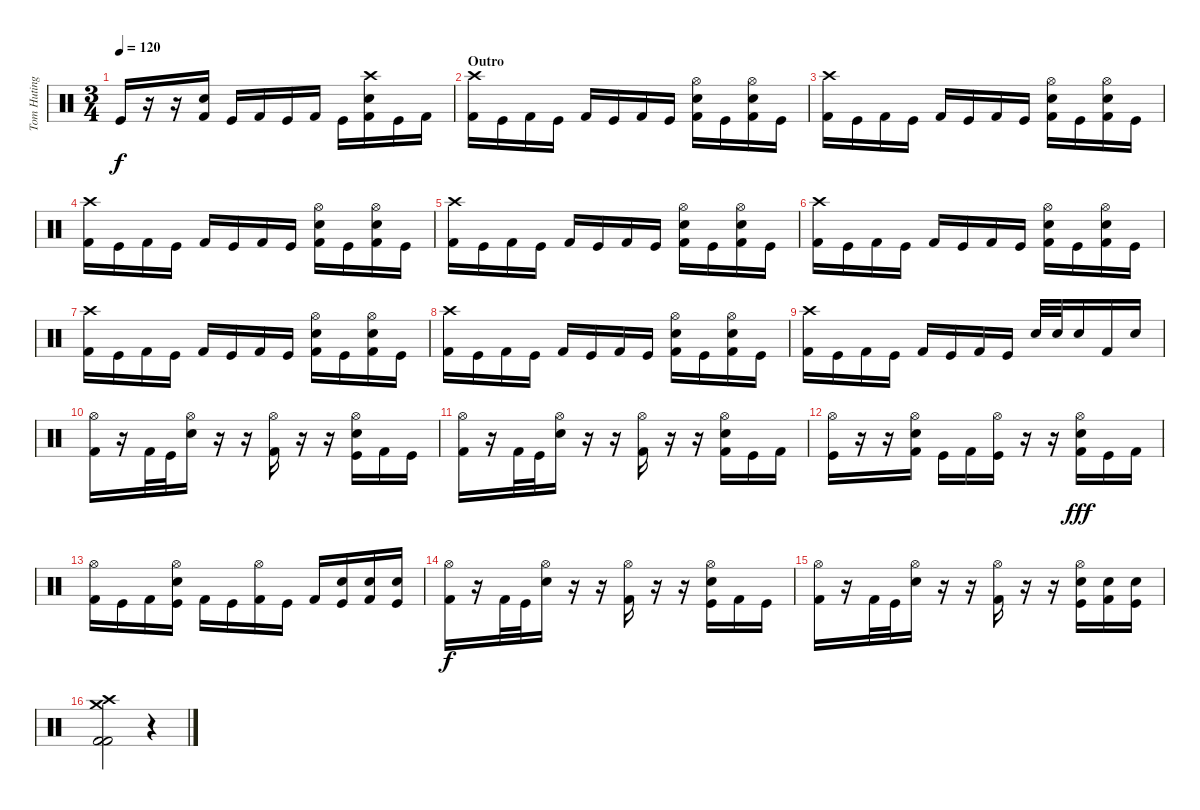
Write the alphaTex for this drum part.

\track ("Tom Huting" "Tom Huting") {instrument percussion}
\staff {score}
\articulation defaults
\ts (3 4)
\tempo 120
\clef neutral
\ks c "Kick (hit)".16{dy f}
r.16 r.16 ("Kick (hit) 2" "Snare (hit) 2").16 "Kick (hit)".16 "Kick (hit) 2".16 "Kick (hit)".16 "Kick (hit) 2".16 "Kick (hit)".16 ("Kick (hit) 2" "Snare (hit) 2" "Crash high (hit)").16 "Kick (hit)".16 "Kick (hit) 2".16 |
\section ("" "Outro")
("Kick (hit) 2" "Crash high (hit)").16 "Kick (hit)".16 "Kick (hit) 2".16 "Kick (hit)".16 "Kick (hit) 2".16 "Kick (hit)".16 "Kick (hit) 2".16 "Kick (hit)".16 ("Kick (hit) 2" "Snare (hit) 2" "Hi-Hat (open)").16 "Kick (hit)".16 ("Kick (hit) 2" "Snare (hit) 2" "Hi-Hat (open)").16 "Kick (hit)".16 |
("Kick (hit) 2" "Crash high (hit)").16 "Kick (hit)".16 "Kick (hit) 2".16 "Kick (hit)".16 "Kick (hit) 2".16 "Kick (hit)".16 "Kick (hit) 2".16 "Kick (hit)".16 ("Kick (hit) 2" "Snare (hit) 2" "Hi-Hat (open)").16 "Kick (hit)".16 ("Kick (hit) 2" "Snare (hit) 2" "Hi-Hat (open)").16 "Kick (hit)".16 |
("Kick (hit) 2" "Crash high (hit)").16 "Kick (hit)".16 "Kick (hit) 2".16 "Kick (hit)".16 "Kick (hit) 2".16 "Kick (hit)".16 "Kick (hit) 2".16 "Kick (hit)".16 ("Kick (hit) 2" "Snare (hit) 2" "Hi-Hat (open)").16 "Kick (hit)".16 ("Kick (hit) 2" "Snare (hit) 2" "Hi-Hat (open)").16 "Kick (hit)".16 |
("Kick (hit) 2" "Crash high (hit)").16 "Kick (hit)".16 "Kick (hit) 2".16 "Kick (hit)".16 "Kick (hit) 2".16 "Kick (hit)".16 "Kick (hit) 2".16 "Kick (hit)".16 ("Kick (hit) 2" "Snare (hit) 2" "Hi-Hat (open)").16 "Kick (hit)".16 ("Kick (hit) 2" "Snare (hit) 2" "Hi-Hat (open)").16 "Kick (hit)".16 |
("Kick (hit) 2" "Crash high (hit)").16 "Kick (hit)".16 "Kick (hit) 2".16 "Kick (hit)".16 "Kick (hit) 2".16 "Kick (hit)".16 "Kick (hit) 2".16 "Kick (hit)".16 ("Kick (hit) 2" "Snare (hit) 2" "Hi-Hat (open)").16 "Kick (hit)".16 ("Kick (hit) 2" "Snare (hit) 2" "Hi-Hat (open)").16 "Kick (hit)".16 |
("Kick (hit) 2" "Crash high (hit)").16 "Kick (hit)".16 "Kick (hit) 2".16 "Kick (hit)".16 "Kick (hit) 2".16 "Kick (hit)".16 "Kick (hit) 2".16 "Kick (hit)".16 ("Kick (hit) 2" "Snare (hit) 2" "Hi-Hat (open)").16 "Kick (hit)".16 ("Kick (hit) 2" "Snare (hit) 2" "Hi-Hat (open)").16 "Kick (hit)".16 |
("Kick (hit) 2" "Crash high (hit)").16 "Kick (hit)".16 "Kick (hit) 2".16 "Kick (hit)".16 "Kick (hit) 2".16 "Kick (hit)".16 "Kick (hit) 2".16 "Kick (hit)".16 ("Kick (hit) 2" "Snare (hit) 2" "Hi-Hat (open)").16 "Kick (hit)".16 ("Kick (hit) 2" "Snare (hit) 2" "Hi-Hat (open)").16 "Kick (hit)".16 |
("Kick (hit) 2" "Crash high (hit)").16 "Kick (hit)".16 "Kick (hit) 2".16 "Kick (hit)".16 "Kick (hit) 2".16 "Kick (hit)".16 "Kick (hit) 2".16 "Kick (hit)".16 "Snare (hit) 2".32 "Snare (hit) 2".32 "Snare (hit) 2".16 "Kick (hit) 2".16 "Snare (hit) 2".16 |
("Kick (hit) 2" "Hi-Hat (open)").16 r.16 "Kick (hit) 2".32 "Kick (hit)".32 ("Snare (hit) 2" "Hi-Hat (open)").16 r.16 r.16 ("Kick (hit) 2" "Hi-Hat (open)").16 r.16 r.16 ("Kick (hit)" "Snare (hit) 2" "Hi-Hat (open)").16 "Kick (hit) 2".16 "Kick (hit)".16 |
("Kick (hit) 2" "Hi-Hat (open)").16 r.16 "Kick (hit) 2".32 "Kick (hit)".32 ("Snare (hit) 2" "Hi-Hat (open)").16 r.16 r.16 ("Kick (hit) 2" "Hi-Hat (open)").16 r.16 r.16 ("Kick (hit) 2" "Snare (hit) 2" "Hi-Hat (open)").16 "Kick (hit)".16 "Kick (hit) 2".16 |
("Kick (hit)" "Hi-Hat (open)").16 r.16 r.16 ("Kick (hit) 2" "Snare (hit) 2" "Hi-Hat (open)").16 "Kick (hit)".16 "Kick (hit) 2".16 ("Kick (hit)" "Hi-Hat (open)").16 r.16 r.16 ("Kick (hit) 2" "Snare (hit) 2" "Hi-Hat (open)").16{dy fff} "Kick (hit)".16 "Kick (hit) 2".16 |
("Kick (hit) 2" "Hi-Hat (open)").16 "Kick (hit)".16 "Kick (hit) 2".16 ("Kick (hit)" "Snare (hit) 2" "Hi-Hat (open)").16 "Kick (hit) 2".16 "Kick (hit)".16 ("Kick (hit) 2" "Hi-Hat (open)").16 "Kick (hit)".16 "Kick (hit) 2".16 ("Kick (hit)" "Snare (hit) 2").16 ("Kick (hit) 2" "Snare (hit) 2").16 ("Kick (hit)" "Snare (hit) 2").16 |
("Kick (hit) 2" "Hi-Hat (open)").16{dy f} r.16 "Kick (hit) 2".32 "Kick (hit)".32 ("Snare (hit) 2" "Hi-Hat (open)").16 r.16 r.16 ("Kick (hit) 2" "Hi-Hat (open)").16 r.16 r.16 ("Kick (hit)" "Snare (hit) 2" "Hi-Hat (open)").16 "Kick (hit) 2".16 "Kick (hit)".16 |
("Kick (hit) 2" "Hi-Hat (open)").16 r.16 "Kick (hit) 2".32 "Kick (hit)".32 ("Snare (hit) 2" "Hi-Hat (open)").16 r.16 r.16 ("Kick (hit) 2" "Hi-Hat (open)").16 r.16 r.16 ("Kick (hit)" "Snare (hit) 2" "Hi-Hat (open)").16 ("Kick (hit) 2" "Snare (hit) 2").16 ("Kick (hit)" "Snare (hit) 2").16 |
("Kick (hit) 2" "Kick (hit) 2" "Crash medium (hit)" "Crash high (hit)").2 r.4
